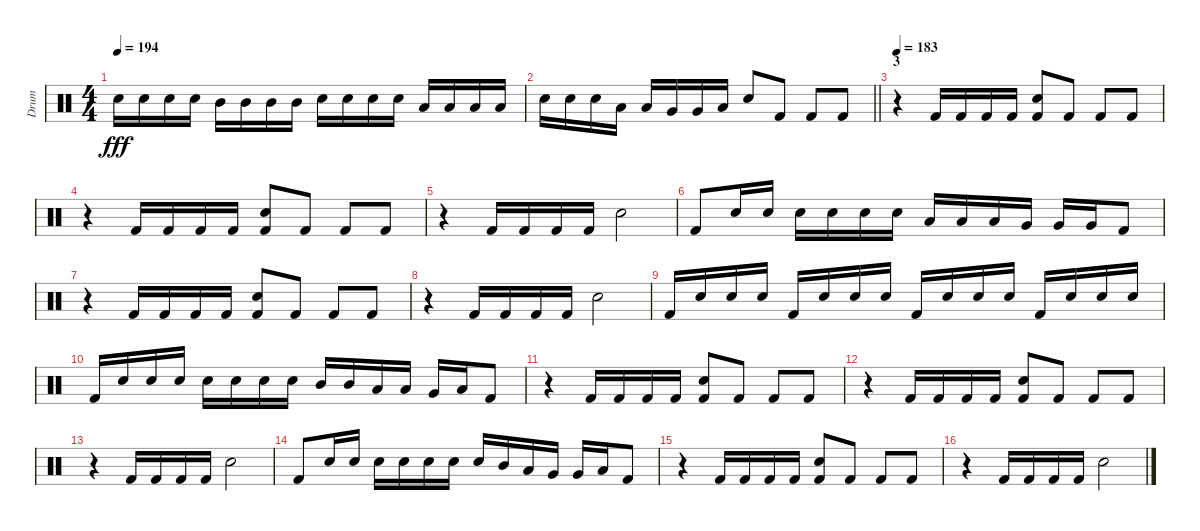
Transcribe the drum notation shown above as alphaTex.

\track ("Drum" "Drum") {instrument percussion}
\staff {score}
\articulation defaults
\ts (4 4)
\tempo 194
\clef neutral
\ks c "Electric Snare (hit)".16{dy fff} "Electric Snare (hit)".16 "Electric Snare (hit)".16 "Electric Snare (hit)".16 "Mid Tom (hit)".16 "Mid Tom (hit)".16 "Mid Tom (hit)".16 "Mid Tom (hit)".16 "Electric Snare (hit)".16 "Electric Snare (hit)".16 "Electric Snare (hit)".16 "Electric Snare (hit)".16 "Low Tom (hit)".16 "Low Tom (hit)".16 "Low Tom (hit)".16 "Low Tom (hit)".16
|
\barLineRight lightlight "Electric Snare (hit)".16 "Electric Snare (hit)".16 "Electric Snare (hit)".16 "Low Tom (hit)".16 "Low Tom (hit)".16 "Very Low Tom (hit)".16 "Very Low Tom (hit)".16 "Low Floor Tom (hit)".16 "Electric Snare (hit)".8 "Kick (hit) 2".8 "Kick (hit) 2".8 "Kick (hit) 2".8
|
\section ("" "3")
\tempo 183
r.4 "Kick (hit) 2".16 "Kick (hit) 2".16 "Kick (hit) 2".16 "Kick (hit) 2".16 ("Electric Snare (hit)" "Kick (hit) 2").8 "Kick (hit) 2".8 "Kick (hit) 2".8 "Kick (hit) 2".8 |
r.4 "Kick (hit) 2".16 "Kick (hit) 2".16 "Kick (hit) 2".16 "Kick (hit) 2".16 ("Electric Snare (hit)" "Kick (hit) 2").8 "Kick (hit) 2".8 "Kick (hit) 2".8 "Kick (hit) 2".8 |
r.4 "Kick (hit) 2".16 "Kick (hit) 2".16 "Kick (hit) 2".16 "Kick (hit) 2".16 "Electric Snare (hit)".2 |
"Kick (hit) 2".8 "Electric Snare (hit)".16 "Electric Snare (hit)".16 "Electric Snare (hit)".16 "Electric Snare (hit)".16 "Electric Snare (hit)".16 "Electric Snare (hit)".16 "Low Tom (hit)".16 "Low Tom (hit)".16 "Low Tom (hit)".16 "Very Low Tom (hit)".16 "Very Low Tom (hit)".16 "Very Low Tom (hit)".16 "Kick (hit) 2".8 |
r.4 "Kick (hit) 2".16 "Kick (hit) 2".16 "Kick (hit) 2".16 "Kick (hit) 2".16 ("Electric Snare (hit)" "Kick (hit) 2").8 "Kick (hit) 2".8 "Kick (hit) 2".8 "Kick (hit) 2".8 |
r.4 "Kick (hit) 2".16 "Kick (hit) 2".16 "Kick (hit) 2".16 "Kick (hit) 2".16 "Electric Snare (hit)".2 |
"Kick (hit) 2".16 "Electric Snare (hit)".16 "Electric Snare (hit)".16 "Electric Snare (hit)".16 "Kick (hit) 2".16 "Electric Snare (hit)".16 "Electric Snare (hit)".16 "Electric Snare (hit)".16 "Kick (hit) 2".16 "Electric Snare (hit)".16 "Electric Snare (hit)".16 "Electric Snare (hit)".16 "Kick (hit) 2".16 "Electric Snare (hit)".16 "Electric Snare (hit)".16 "Electric Snare (hit)".16 |
"Kick (hit) 2".16 "Electric Snare (hit)".16 "Electric Snare (hit)".16 "Electric Snare (hit)".16 "Electric Snare (hit)".16 "Electric Snare (hit)".16 "Electric Snare (hit)".16 "Electric Snare (hit)".16 "Mid Tom (hit)".16 "Mid Tom (hit)".16 "Low Tom (hit)".16 "Low Tom (hit)".16 "Very Low Tom (hit)".16 "Low Floor Tom (hit)".16 "Kick (hit) 2".8 |
r.4 "Kick (hit) 2".16 "Kick (hit) 2".16 "Kick (hit) 2".16 "Kick (hit) 2".16 ("Electric Snare (hit)" "Kick (hit) 2").8 "Kick (hit) 2".8 "Kick (hit) 2".8 "Kick (hit) 2".8 |
r.4 "Kick (hit) 2".16 "Kick (hit) 2".16 "Kick (hit) 2".16 "Kick (hit) 2".16 ("Electric Snare (hit)" "Kick (hit) 2").8 "Kick (hit) 2".8 "Kick (hit) 2".8 "Kick (hit) 2".8 |
r.4 "Kick (hit) 2".16 "Kick (hit) 2".16 "Kick (hit) 2".16 "Kick (hit) 2".16 "Electric Snare (hit)".2 |
"Kick (hit) 2".8 "Electric Snare (hit)".16 "Electric Snare (hit)".16 "Electric Snare (hit)".16 "Electric Snare (hit)".16 "Electric Snare (hit)".16 "Electric Snare (hit)".16 "Electric Snare (hit)".16 "Mid Tom (hit)".16 "Low Tom (hit)".16 "Very Low Tom (hit)".16 "Very Low Tom (hit)".16 "Low Floor Tom (hit)".16 "Kick (hit) 2".8 |
r.4 "Kick (hit) 2".16 "Kick (hit) 2".16 "Kick (hit) 2".16 "Kick (hit) 2".16 ("Electric Snare (hit)" "Kick (hit) 2").8 "Kick (hit) 2".8 "Kick (hit) 2".8 "Kick (hit) 2".8 |
r.4 "Kick (hit) 2".16 "Kick (hit) 2".16 "Kick (hit) 2".16 "Kick (hit) 2".16 "Electric Snare (hit)".2
